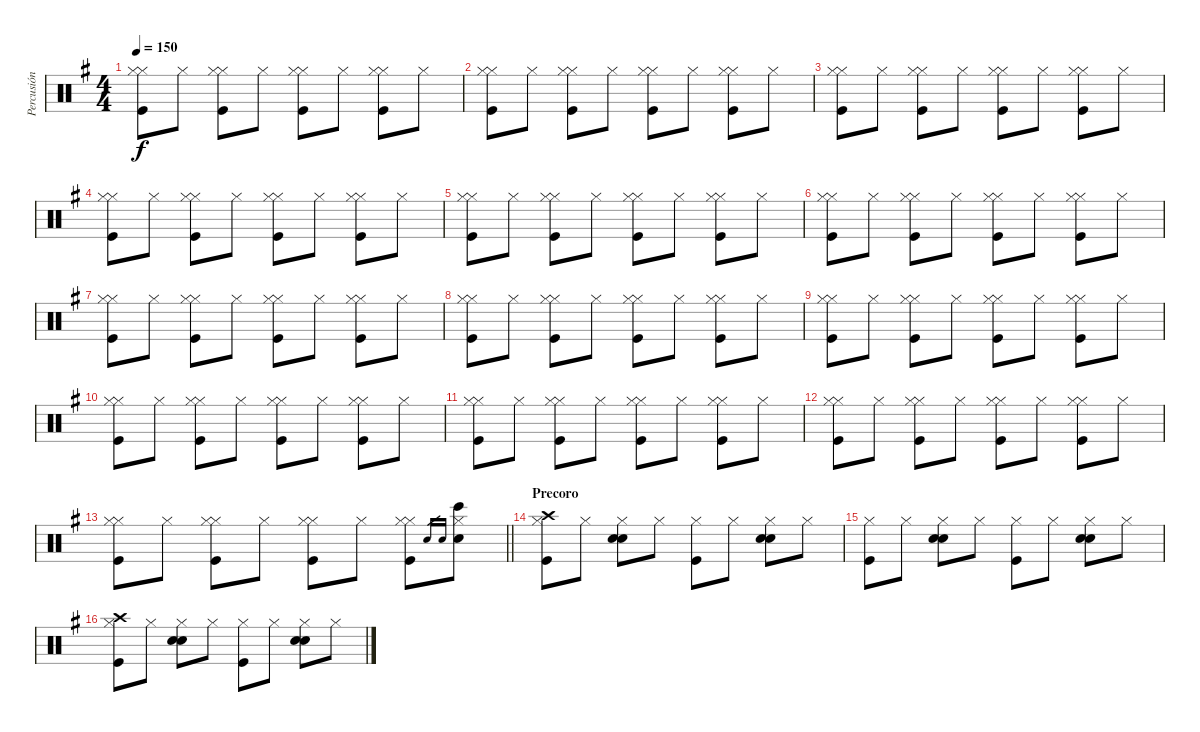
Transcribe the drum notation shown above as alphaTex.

\track ("Percusión" "Percusión") {instrument percussion}
\staff {score}
\articulation defaults
\ts (4 4)
\tempo 150
\clef neutral
\ks g
("Hi-Hat (closed)" "Kick (hit)" "Hi-Hat (closed)").8{dy f} "Hi-Hat (closed)".8 ("Hi-Hat (closed)" "Kick (hit)" "Hi-Hat (closed)").8 "Hi-Hat (closed)".8 ("Hi-Hat (closed)" "Kick (hit)" "Hi-Hat (closed)").8 "Hi-Hat (closed)".8 ("Hi-Hat (closed)" "Kick (hit)" "Hi-Hat (closed)").8 "Hi-Hat (closed)".8 |
("Hi-Hat (closed)" "Kick (hit)" "Hi-Hat (closed)").8 "Hi-Hat (closed)".8 ("Hi-Hat (closed)" "Kick (hit)" "Hi-Hat (closed)").8 "Hi-Hat (closed)".8 ("Hi-Hat (closed)" "Kick (hit)" "Hi-Hat (closed)").8 "Hi-Hat (closed)".8 ("Hi-Hat (closed)" "Kick (hit)" "Hi-Hat (closed)").8 "Hi-Hat (closed)".8 |
("Hi-Hat (closed)" "Kick (hit)" "Hi-Hat (closed)").8 "Hi-Hat (closed)".8 ("Hi-Hat (closed)" "Kick (hit)" "Hi-Hat (closed)").8 "Hi-Hat (closed)".8 ("Hi-Hat (closed)" "Kick (hit)" "Hi-Hat (closed)").8 "Hi-Hat (closed)".8 ("Hi-Hat (closed)" "Kick (hit)" "Hi-Hat (closed)").8 "Hi-Hat (closed)".8 |
("Hi-Hat (closed)" "Kick (hit)" "Hi-Hat (closed)").8 "Hi-Hat (closed)".8 ("Hi-Hat (closed)" "Kick (hit)" "Hi-Hat (closed)").8 "Hi-Hat (closed)".8 ("Hi-Hat (closed)" "Kick (hit)" "Hi-Hat (closed)").8 "Hi-Hat (closed)".8 ("Hi-Hat (closed)" "Kick (hit)" "Hi-Hat (closed)").8 "Hi-Hat (closed)".8 |
("Hi-Hat (closed)" "Kick (hit)" "Hi-Hat (closed)").8 "Hi-Hat (closed)".8 ("Hi-Hat (closed)" "Kick (hit)" "Hi-Hat (closed)").8 "Hi-Hat (closed)".8 ("Hi-Hat (closed)" "Kick (hit)" "Hi-Hat (closed)").8 "Hi-Hat (closed)".8 ("Hi-Hat (closed)" "Kick (hit)" "Hi-Hat (closed)").8 "Hi-Hat (closed)".8 |
("Hi-Hat (closed)" "Kick (hit)" "Hi-Hat (closed)").8 "Hi-Hat (closed)".8 ("Hi-Hat (closed)" "Kick (hit)" "Hi-Hat (closed)").8 "Hi-Hat (closed)".8 ("Hi-Hat (closed)" "Kick (hit)" "Hi-Hat (closed)").8 "Hi-Hat (closed)".8 ("Hi-Hat (closed)" "Kick (hit)" "Hi-Hat (closed)").8 "Hi-Hat (closed)".8 |
("Hi-Hat (closed)" "Kick (hit)" "Hi-Hat (closed)").8 "Hi-Hat (closed)".8 ("Hi-Hat (closed)" "Kick (hit)" "Hi-Hat (closed)").8 "Hi-Hat (closed)".8 ("Hi-Hat (closed)" "Kick (hit)" "Hi-Hat (closed)").8 "Hi-Hat (closed)".8 ("Hi-Hat (closed)" "Kick (hit)" "Hi-Hat (closed)").8 "Hi-Hat (closed)".8 |
("Hi-Hat (closed)" "Kick (hit)" "Hi-Hat (closed)").8 "Hi-Hat (closed)".8 ("Hi-Hat (closed)" "Kick (hit)" "Hi-Hat (closed)").8 "Hi-Hat (closed)".8 ("Hi-Hat (closed)" "Kick (hit)" "Hi-Hat (closed)").8 "Hi-Hat (closed)".8 ("Hi-Hat (closed)" "Kick (hit)" "Hi-Hat (closed)").8 "Hi-Hat (closed)".8 |
("Hi-Hat (closed)" "Kick (hit)" "Hi-Hat (closed)").8 "Hi-Hat (closed)".8 ("Hi-Hat (closed)" "Kick (hit)" "Hi-Hat (closed)").8 "Hi-Hat (closed)".8 ("Hi-Hat (closed)" "Kick (hit)" "Hi-Hat (closed)").8 "Hi-Hat (closed)".8 ("Hi-Hat (closed)" "Kick (hit)" "Hi-Hat (closed)").8 "Hi-Hat (closed)".8 |
("Hi-Hat (closed)" "Kick (hit)" "Hi-Hat (closed)").8 "Hi-Hat (closed)".8 ("Hi-Hat (closed)" "Kick (hit)" "Hi-Hat (closed)").8 "Hi-Hat (closed)".8 ("Hi-Hat (closed)" "Kick (hit)" "Hi-Hat (closed)").8 "Hi-Hat (closed)".8 ("Hi-Hat (closed)" "Kick (hit)" "Hi-Hat (closed)").8 "Hi-Hat (closed)".8 |
("Hi-Hat (closed)" "Kick (hit)" "Hi-Hat (closed)").8 "Hi-Hat (closed)".8 ("Hi-Hat (closed)" "Kick (hit)" "Hi-Hat (closed)").8 "Hi-Hat (closed)".8 ("Hi-Hat (closed)" "Kick (hit)" "Hi-Hat (closed)").8 "Hi-Hat (closed)".8 ("Hi-Hat (closed)" "Kick (hit)" "Hi-Hat (closed)").8 "Hi-Hat (closed)".8 |
("Hi-Hat (closed)" "Kick (hit)" "Hi-Hat (closed)").8 "Hi-Hat (closed)".8 ("Hi-Hat (closed)" "Kick (hit)" "Hi-Hat (closed)").8 "Hi-Hat (closed)".8 ("Hi-Hat (closed)" "Kick (hit)" "Hi-Hat (closed)").8 "Hi-Hat (closed)".8 ("Hi-Hat (closed)" "Kick (hit)" "Hi-Hat (closed)").8 "Hi-Hat (closed)".8 |
\barLineRight lightlight
("Hi-Hat (closed)" "Kick (hit)" "Hi-Hat (closed)").8 "Hi-Hat (closed)".8 ("Hi-Hat (closed)" "Kick (hit)" "Hi-Hat (closed)").8 "Hi-Hat (closed)".8 ("Hi-Hat (closed)" "Kick (hit)" "Hi-Hat (closed)").8 "Hi-Hat (closed)".8 ("Hi-Hat (closed)" "Kick (hit)" "Hi-Hat (closed)").8 "Snare (hit) 2".16{gr} "Snare (hit)".16{gr} ("Hi-Hat (closed)" "Snare (hit) 2" "Bongo High (hit)").8 |
\section ("" "Precoro")
("Hi-Hat (closed)" "Kick (hit)" "Crash high (hit)").8 "Hi-Hat (closed)".8 ("Hi-Hat (closed)" "Snare (hit) 2" "Hand Clap (hit)").8 "Hi-Hat (closed)".8 ("Hi-Hat (closed)" "Kick (hit)").8 "Hi-Hat (closed)".8 ("Hi-Hat (closed)" "Snare (hit) 2" "Hand Clap (hit)").8 "Hi-Hat (closed)".8 |
("Hi-Hat (closed)" "Kick (hit)").8 "Hi-Hat (closed)".8 ("Hi-Hat (closed)" "Snare (hit) 2" "Hand Clap (hit)").8 "Hi-Hat (closed)".8 ("Hi-Hat (closed)" "Kick (hit)").8 "Hi-Hat (closed)".8 ("Hi-Hat (closed)" "Snare (hit) 2" "Hand Clap (hit)").8 "Hi-Hat (closed)".8 |
("Hi-Hat (closed)" "Kick (hit)" "Crash high (hit)").8 "Hi-Hat (closed)".8 ("Hi-Hat (closed)" "Snare (hit) 2" "Hand Clap (hit)").8 "Hi-Hat (closed)".8 ("Hi-Hat (closed)" "Kick (hit)").8 "Hi-Hat (closed)".8 ("Hi-Hat (closed)" "Snare (hit) 2" "Hand Clap (hit)").8 "Hi-Hat (closed)".8
